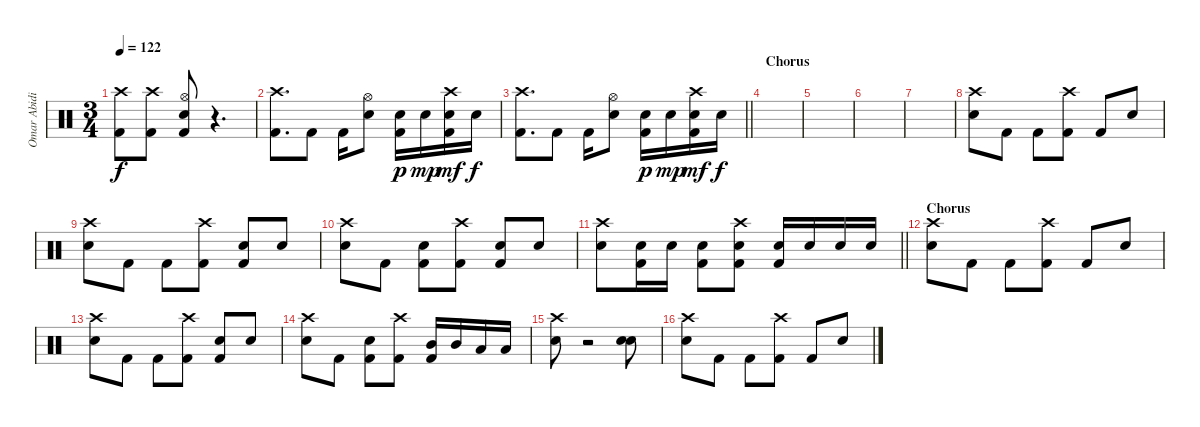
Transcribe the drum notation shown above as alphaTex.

\track ("Omar Abidi" "Omar Abidi") {instrument percussion}
\staff {score}
\articulation defaults
\ts (3 4)
\tempo 122
\clef neutral
\ks c
("Crash high (hit)" "Kick (hit) 2").8{dy f} ("Crash high (hit)" "Kick (hit) 2").8 ("Hi-Hat (open)" "Electric Snare (hit)" "Kick (hit) 2").8 r.4{d} |
("Crash high (hit)" "Kick (hit) 2").8{d} "Kick (hit) 2".8 "Kick (hit) 2".16 ("Hi-Hat (open)" "Electric Snare (hit)").8 ("Snare (hit) 2" "Kick (hit) 2").16{dy p} "Snare (hit) 2".16{dy mp} ("Crash high (hit)" "Snare (hit) 2" "Kick (hit) 2").16{dy mf} "Snare (hit) 2".16{dy f} |
\barLineRight lightlight
("Crash high (hit)" "Kick (hit) 2").8{d} "Kick (hit) 2".8 "Kick (hit) 2".16 ("Hi-Hat (open)" "Electric Snare (hit)").8 ("Snare (hit) 2" "Kick (hit) 2").16{dy p} "Snare (hit) 2".16{dy mp} ("Crash high (hit)" "Snare (hit) 2" "Kick (hit) 2").16{dy mf} "Snare (hit) 2".16{dy f} |
\section ("" "Chorus")
|
|
|
|
("Crash high (hit)" "Electric Snare (hit)").8 "Kick (hit) 2".8 "Kick (hit) 2".8 ("Crash high (hit)" "Kick (hit) 2").8 "Kick (hit) 2".8 "Electric Snare (hit)".8 |
("Crash high (hit)" "Electric Snare (hit)").8 "Kick (hit) 2".8 "Kick (hit) 2".8 ("Crash high (hit)" "Kick (hit) 2").8 ("Electric Snare (hit)" "Kick (hit) 2").8 "Electric Snare (hit)".8 |
("Crash high (hit)" "Electric Snare (hit)").8 "Kick (hit) 2".8 ("Electric Snare (hit)" "Kick (hit) 2").8 ("Crash high (hit)" "Kick (hit) 2").8 ("Electric Snare (hit)" "Kick (hit) 2").8 "Electric Snare (hit)".8 |
\barLineRight lightlight
("Crash high (hit)" "Electric Snare (hit)").8 ("Electric Snare (hit)" "Kick (hit) 2").16 "Electric Snare (hit)".16 ("Electric Snare (hit)" "Kick (hit) 2").8 ("Crash high (hit)" "Electric Snare (hit)" "Kick (hit) 2").8 ("Electric Snare (hit)" "Kick (hit) 2").16 "Electric Snare (hit)".16 "Electric Snare (hit)".16 "Electric Snare (hit)".16 |
\section ("" "Chorus")
("Crash high (hit)" "Electric Snare (hit)").8 "Kick (hit) 2".8 "Kick (hit) 2".8 ("Crash high (hit)" "Kick (hit) 2").8 "Kick (hit) 2".8 "Electric Snare (hit)".8 |
("Crash high (hit)" "Electric Snare (hit)").8 "Kick (hit) 2".8 "Kick (hit) 2".8 ("Crash high (hit)" "Kick (hit) 2").8 ("Electric Snare (hit)" "Kick (hit) 2").8 "Electric Snare (hit)".8 |
("Crash high (hit)" "Electric Snare (hit)").8 "Kick (hit) 2".8 ("Electric Snare (hit)" "Kick (hit) 2").8 ("Crash high (hit)" "Kick (hit) 2").8 ("Mid Tom (hit)" "Kick (hit) 2").16 "Mid Tom (hit)".16 "Low Tom (hit)".16 "Low Tom (hit)".16 |
("Crash high (hit)" "Electric Snare (hit)").8 r.2 ("Electric Snare (hit)" "Electric Snare (hit)").8{bd 120} |
("Crash high (hit)" "Electric Snare (hit)").8 "Kick (hit) 2".8 "Kick (hit) 2".8 ("Crash high (hit)" "Kick (hit) 2").8 "Kick (hit) 2".8 "Electric Snare (hit)".8
